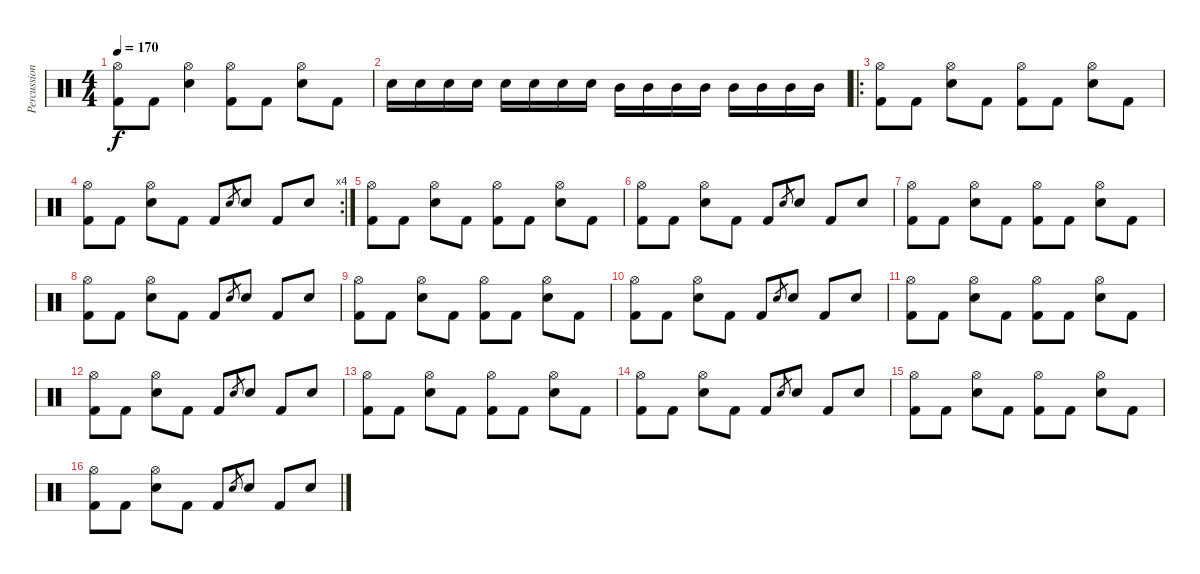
\track ("Percussion" "Percussion") {instrument percussion}
\staff {score}
\articulation defaults
\ts (4 4)
\tempo 170
\clef neutral
\ks c
("Hi-Hat (open)" "Kick (hit) 2").8{dy f} "Kick (hit) 2".8 ("Hi-Hat (open)" "Electric Snare (hit)").4 ("Hi-Hat (open)" "Kick (hit) 2").8 "Kick (hit) 2".8 ("Hi-Hat (open)" "Electric Snare (hit)").8 "Kick (hit) 2".8 |
"Electric Snare (hit)".16 "Electric Snare (hit)".16 "Electric Snare (hit)".16 "Electric Snare (hit)".16 "Electric Snare (hit)".16 "Electric Snare (hit)".16 "Electric Snare (hit)".16 "Electric Snare (hit)".16 "Mid Tom (hit)".16 "Mid Tom (hit)".16 "Mid Tom (hit)".16 "Mid Tom (hit)".16 "Mid Tom (hit)".16 "Mid Tom (hit)".16 "Mid Tom (hit)".16 "Mid Tom (hit)".16 |
\ro
("Hi-Hat (open)" "Kick (hit) 2").8 "Kick (hit) 2".8 ("Hi-Hat (open)" "Electric Snare (hit)").8 "Kick (hit) 2".8 ("Hi-Hat (open)" "Kick (hit) 2").8 "Kick (hit) 2".8 ("Hi-Hat (open)" "Electric Snare (hit)").8 "Kick (hit) 2".8 |
\rc 4
("Hi-Hat (open)" "Kick (hit) 2").8 "Kick (hit) 2".8 ("Hi-Hat (open)" "Electric Snare (hit)").8 "Kick (hit) 2".8 "Kick (hit) 2".8 "Electric Snare (hit)".8{gr} "Electric Snare (hit)".8 "Kick (hit) 2".8 "Electric Snare (hit)".8 |
("Hi-Hat (open)" "Kick (hit) 2").8 "Kick (hit) 2".8 ("Hi-Hat (open)" "Electric Snare (hit)").8 "Kick (hit) 2".8 ("Hi-Hat (open)" "Kick (hit) 2").8 "Kick (hit) 2".8 ("Hi-Hat (open)" "Electric Snare (hit)").8 "Kick (hit) 2".8 |
("Hi-Hat (open)" "Kick (hit) 2").8 "Kick (hit) 2".8 ("Hi-Hat (open)" "Electric Snare (hit)").8 "Kick (hit) 2".8 "Kick (hit) 2".8 "Electric Snare (hit)".8{gr} "Electric Snare (hit)".8 "Kick (hit) 2".8 "Electric Snare (hit)".8 |
("Hi-Hat (open)" "Kick (hit) 2").8 "Kick (hit) 2".8 ("Hi-Hat (open)" "Electric Snare (hit)").8 "Kick (hit) 2".8 ("Hi-Hat (open)" "Kick (hit) 2").8 "Kick (hit) 2".8 ("Hi-Hat (open)" "Electric Snare (hit)").8 "Kick (hit) 2".8 |
("Hi-Hat (open)" "Kick (hit) 2").8 "Kick (hit) 2".8 ("Hi-Hat (open)" "Electric Snare (hit)").8 "Kick (hit) 2".8 "Kick (hit) 2".8 "Electric Snare (hit)".8{gr} "Electric Snare (hit)".8 "Kick (hit) 2".8 "Electric Snare (hit)".8 |
("Hi-Hat (open)" "Kick (hit) 2").8 "Kick (hit) 2".8 ("Hi-Hat (open)" "Electric Snare (hit)").8 "Kick (hit) 2".8 ("Hi-Hat (open)" "Kick (hit) 2").8 "Kick (hit) 2".8 ("Hi-Hat (open)" "Electric Snare (hit)").8 "Kick (hit) 2".8 |
("Hi-Hat (open)" "Kick (hit) 2").8 "Kick (hit) 2".8 ("Hi-Hat (open)" "Electric Snare (hit)").8 "Kick (hit) 2".8 "Kick (hit) 2".8 "Electric Snare (hit)".8{gr} "Electric Snare (hit)".8 "Kick (hit) 2".8 "Electric Snare (hit)".8 |
("Hi-Hat (open)" "Kick (hit) 2").8 "Kick (hit) 2".8 ("Hi-Hat (open)" "Electric Snare (hit)").8 "Kick (hit) 2".8 ("Hi-Hat (open)" "Kick (hit) 2").8 "Kick (hit) 2".8 ("Hi-Hat (open)" "Electric Snare (hit)").8 "Kick (hit) 2".8 |
("Hi-Hat (open)" "Kick (hit) 2").8 "Kick (hit) 2".8 ("Hi-Hat (open)" "Electric Snare (hit)").8 "Kick (hit) 2".8 "Kick (hit) 2".8 "Electric Snare (hit)".8{gr} "Electric Snare (hit)".8 "Kick (hit) 2".8 "Electric Snare (hit)".8 |
("Hi-Hat (open)" "Kick (hit) 2").8 "Kick (hit) 2".8 ("Hi-Hat (open)" "Electric Snare (hit)").8 "Kick (hit) 2".8 ("Hi-Hat (open)" "Kick (hit) 2").8 "Kick (hit) 2".8 ("Hi-Hat (open)" "Electric Snare (hit)").8 "Kick (hit) 2".8 |
("Hi-Hat (open)" "Kick (hit) 2").8 "Kick (hit) 2".8 ("Hi-Hat (open)" "Electric Snare (hit)").8 "Kick (hit) 2".8 "Kick (hit) 2".8 "Electric Snare (hit)".8{gr} "Electric Snare (hit)".8 "Kick (hit) 2".8 "Electric Snare (hit)".8 |
("Hi-Hat (open)" "Kick (hit) 2").8 "Kick (hit) 2".8 ("Hi-Hat (open)" "Electric Snare (hit)").8 "Kick (hit) 2".8 ("Hi-Hat (open)" "Kick (hit) 2").8 "Kick (hit) 2".8 ("Hi-Hat (open)" "Electric Snare (hit)").8 "Kick (hit) 2".8 |
("Hi-Hat (open)" "Kick (hit) 2").8 "Kick (hit) 2".8 ("Hi-Hat (open)" "Electric Snare (hit)").8 "Kick (hit) 2".8 "Kick (hit) 2".8 "Electric Snare (hit)".8{gr} "Electric Snare (hit)".8 "Kick (hit) 2".8 "Electric Snare (hit)".8
